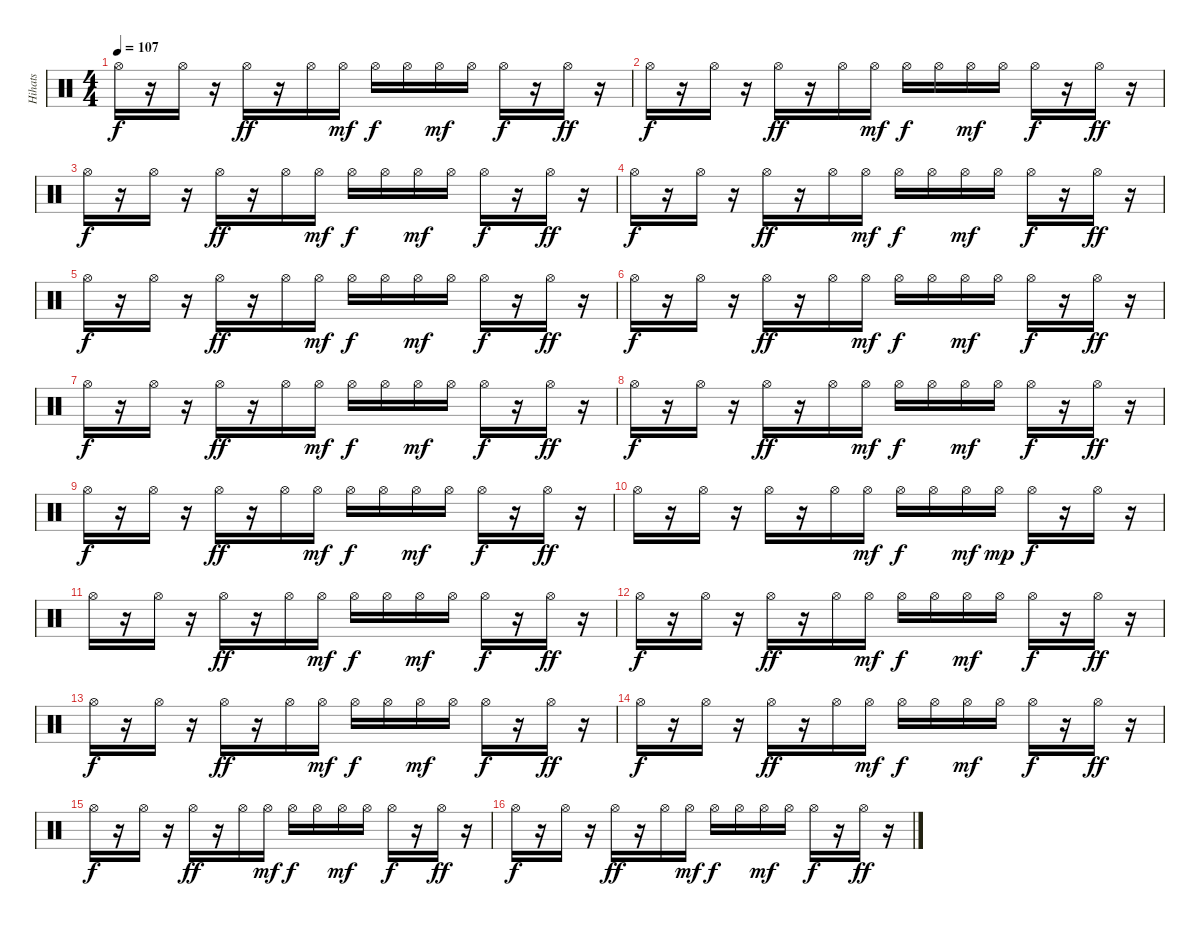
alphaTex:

\track ("Hihats" "Hihats") {instrument percussion}
\staff {score}
\articulation defaults
\ts (4 4)
\tempo 107
\clef neutral
\ks c "Hi-Hat (open)".16{dy f}
r.16 "Hi-Hat (open)".16 r.16 "Hi-Hat (open)".16{dy ff} r.16 "Hi-Hat (open)".16 "Hi-Hat (open)".16{dy mf} "Hi-Hat (open)".16{dy f} "Hi-Hat (open)".16 "Hi-Hat (open)".16{dy mf} "Hi-Hat (open)".16 "Hi-Hat (open)".16{dy f} r.16 "Hi-Hat (open)".16{dy ff} r.16 |
"Hi-Hat (open)".16{dy f} r.16 "Hi-Hat (open)".16 r.16 "Hi-Hat (open)".16{dy ff} r.16 "Hi-Hat (open)".16 "Hi-Hat (open)".16{dy mf} "Hi-Hat (open)".16{dy f} "Hi-Hat (open)".16 "Hi-Hat (open)".16{dy mf} "Hi-Hat (open)".16 "Hi-Hat (open)".16{dy f} r.16 "Hi-Hat (open)".16{dy ff} r.16 |
"Hi-Hat (open)".16{dy f} r.16 "Hi-Hat (open)".16 r.16 "Hi-Hat (open)".16{dy ff} r.16 "Hi-Hat (open)".16 "Hi-Hat (open)".16{dy mf} "Hi-Hat (open)".16{dy f} "Hi-Hat (open)".16 "Hi-Hat (open)".16{dy mf} "Hi-Hat (open)".16 "Hi-Hat (open)".16{dy f} r.16 "Hi-Hat (open)".16{dy ff} r.16 |
"Hi-Hat (open)".16{dy f} r.16 "Hi-Hat (open)".16 r.16 "Hi-Hat (open)".16{dy ff} r.16 "Hi-Hat (open)".16 "Hi-Hat (open)".16{dy mf} "Hi-Hat (open)".16{dy f} "Hi-Hat (open)".16 "Hi-Hat (open)".16{dy mf} "Hi-Hat (open)".16 "Hi-Hat (open)".16{dy f} r.16 "Hi-Hat (open)".16{dy ff} r.16 |
"Hi-Hat (open)".16{dy f} r.16 "Hi-Hat (open)".16 r.16 "Hi-Hat (open)".16{dy ff} r.16 "Hi-Hat (open)".16 "Hi-Hat (open)".16{dy mf} "Hi-Hat (open)".16{dy f} "Hi-Hat (open)".16 "Hi-Hat (open)".16{dy mf} "Hi-Hat (open)".16 "Hi-Hat (open)".16{dy f} r.16 "Hi-Hat (open)".16{dy ff} r.16 |
"Hi-Hat (open)".16{dy f} r.16 "Hi-Hat (open)".16 r.16 "Hi-Hat (open)".16{dy ff} r.16 "Hi-Hat (open)".16 "Hi-Hat (open)".16{dy mf} "Hi-Hat (open)".16{dy f} "Hi-Hat (open)".16 "Hi-Hat (open)".16{dy mf} "Hi-Hat (open)".16 "Hi-Hat (open)".16{dy f} r.16 "Hi-Hat (open)".16{dy ff} r.16 |
"Hi-Hat (open)".16{dy f} r.16 "Hi-Hat (open)".16 r.16 "Hi-Hat (open)".16{dy ff} r.16 "Hi-Hat (open)".16 "Hi-Hat (open)".16{dy mf} "Hi-Hat (open)".16{dy f} "Hi-Hat (open)".16 "Hi-Hat (open)".16{dy mf} "Hi-Hat (open)".16 "Hi-Hat (open)".16{dy f} r.16 "Hi-Hat (open)".16{dy ff} r.16 |
"Hi-Hat (open)".16{dy f} r.16 "Hi-Hat (open)".16 r.16 "Hi-Hat (open)".16{dy ff} r.16 "Hi-Hat (open)".16 "Hi-Hat (open)".16{dy mf} "Hi-Hat (open)".16{dy f} "Hi-Hat (open)".16 "Hi-Hat (open)".16{dy mf} "Hi-Hat (open)".16 "Hi-Hat (open)".16{dy f} r.16 "Hi-Hat (open)".16{dy ff} r.16 |
"Hi-Hat (open)".16{dy f} r.16 "Hi-Hat (open)".16 r.16 "Hi-Hat (open)".16{dy ff} r.16 "Hi-Hat (open)".16 "Hi-Hat (open)".16{dy mf} "Hi-Hat (open)".16{dy f} "Hi-Hat (open)".16 "Hi-Hat (open)".16{dy mf} "Hi-Hat (open)".16 "Hi-Hat (open)".16{dy f} r.16 "Hi-Hat (open)".16{dy ff} r.16 |
"Hi-Hat (open)".16 r.16 "Hi-Hat (open)".16 r.16 "Hi-Hat (open)".16 r.16 "Hi-Hat (open)".16 "Hi-Hat (open)".16{dy mf} "Hi-Hat (open)".16{dy f} "Hi-Hat (open)".16 "Hi-Hat (open)".16{dy mf} "Hi-Hat (open)".16{dy mp} "Hi-Hat (open)".16{dy f} r.16 "Hi-Hat (open)".16 r.16 |
"Hi-Hat (open)".16 r.16 "Hi-Hat (open)".16 r.16 "Hi-Hat (open)".16{dy ff} r.16 "Hi-Hat (open)".16 "Hi-Hat (open)".16{dy mf} "Hi-Hat (open)".16{dy f} "Hi-Hat (open)".16 "Hi-Hat (open)".16{dy mf} "Hi-Hat (open)".16 "Hi-Hat (open)".16{dy f} r.16 "Hi-Hat (open)".16{dy ff} r.16 |
"Hi-Hat (open)".16{dy f} r.16 "Hi-Hat (open)".16 r.16 "Hi-Hat (open)".16{dy ff} r.16 "Hi-Hat (open)".16 "Hi-Hat (open)".16{dy mf} "Hi-Hat (open)".16{dy f} "Hi-Hat (open)".16 "Hi-Hat (open)".16{dy mf} "Hi-Hat (open)".16 "Hi-Hat (open)".16{dy f} r.16 "Hi-Hat (open)".16{dy ff} r.16 |
"Hi-Hat (open)".16{dy f} r.16 "Hi-Hat (open)".16 r.16 "Hi-Hat (open)".16{dy ff} r.16 "Hi-Hat (open)".16 "Hi-Hat (open)".16{dy mf} "Hi-Hat (open)".16{dy f} "Hi-Hat (open)".16 "Hi-Hat (open)".16{dy mf} "Hi-Hat (open)".16 "Hi-Hat (open)".16{dy f} r.16 "Hi-Hat (open)".16{dy ff} r.16 |
"Hi-Hat (open)".16{dy f} r.16 "Hi-Hat (open)".16 r.16 "Hi-Hat (open)".16{dy ff} r.16 "Hi-Hat (open)".16 "Hi-Hat (open)".16{dy mf} "Hi-Hat (open)".16{dy f} "Hi-Hat (open)".16 "Hi-Hat (open)".16{dy mf} "Hi-Hat (open)".16 "Hi-Hat (open)".16{dy f} r.16 "Hi-Hat (open)".16{dy ff} r.16 |
"Hi-Hat (open)".16{dy f} r.16 "Hi-Hat (open)".16 r.16 "Hi-Hat (open)".16{dy ff} r.16 "Hi-Hat (open)".16 "Hi-Hat (open)".16{dy mf} "Hi-Hat (open)".16{dy f} "Hi-Hat (open)".16 "Hi-Hat (open)".16{dy mf} "Hi-Hat (open)".16 "Hi-Hat (open)".16{dy f} r.16 "Hi-Hat (open)".16{dy ff} r.16 |
"Hi-Hat (open)".16{dy f} r.16 "Hi-Hat (open)".16 r.16 "Hi-Hat (open)".16{dy ff} r.16 "Hi-Hat (open)".16 "Hi-Hat (open)".16{dy mf} "Hi-Hat (open)".16{dy f} "Hi-Hat (open)".16 "Hi-Hat (open)".16{dy mf} "Hi-Hat (open)".16 "Hi-Hat (open)".16{dy f} r.16 "Hi-Hat (open)".16{dy ff} r.16
